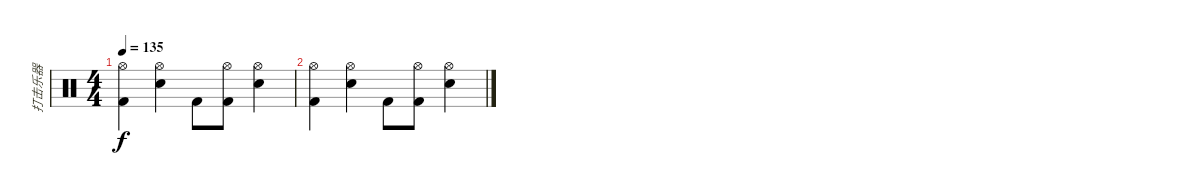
\track ("打击乐器" "打击乐器") {instrument percussion}
\staff {score}
\articulation defaults
\ts (4 4)
\tempo 135
\clef neutral
\ks c
("Hi-Hat (open)" "Kick (hit) 2").4{dy f} ("Hi-Hat (open)" "Electric Snare (hit)").4 "Kick (hit) 2".8 ("Hi-Hat (open)" "Kick (hit) 2").8 ("Hi-Hat (open)" "Electric Snare (hit)").4 |
("Hi-Hat (open)" "Kick (hit) 2").4 ("Hi-Hat (open)" "Electric Snare (hit)").4 "Kick (hit) 2".8 ("Hi-Hat (open)" "Kick (hit) 2").8 ("Hi-Hat (open)" "Electric Snare (hit)").4
